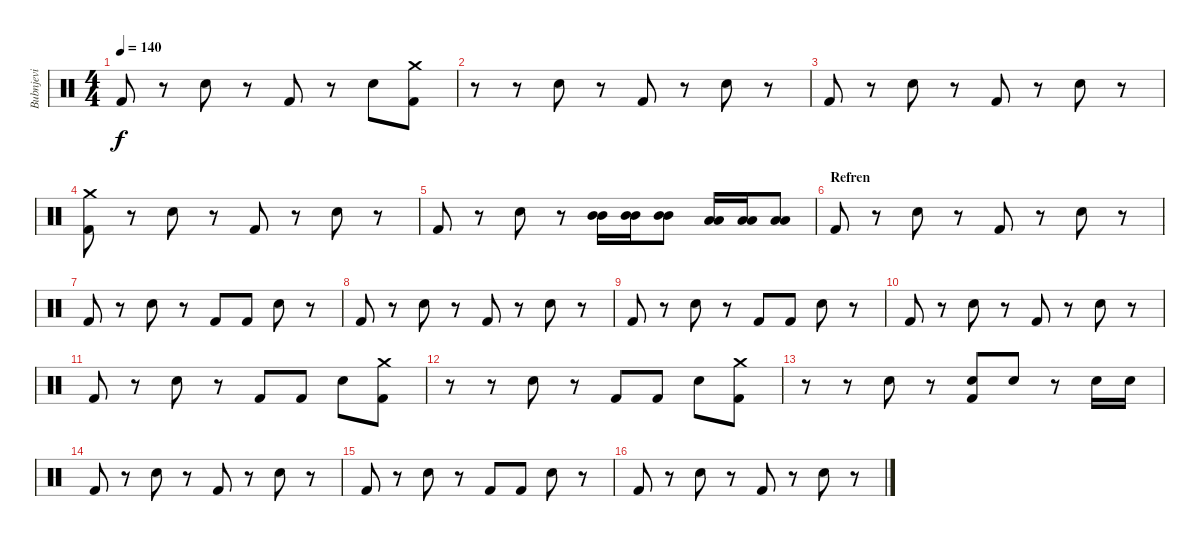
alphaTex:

\track ("Bubnjevi" "Bubnjevi") {instrument percussion}
\staff {score}
\articulation defaults
\ts (4 4)
\tempo 140
\clef neutral
\ks c "Kick (hit) 2".8{dy f}
r.8 "Snare (hit) 2".8 r.8 "Kick (hit) 2".8 r.8 "Snare (hit) 2".8 ("Crash medium (hit)" "Kick (hit) 2").8 |
r.8 r.8 "Snare (hit) 2".8 r.8 "Kick (hit) 2".8 r.8 "Snare (hit) 2".8 r.8 |
"Kick (hit) 2".8 r.8 "Snare (hit) 2".8 r.8 "Kick (hit) 2".8 r.8 "Snare (hit) 2".8 r.8 |
("Crash medium (hit)" "Kick (hit) 2").8 r.8 "Snare (hit) 2".8 r.8 "Kick (hit) 2".8 r.8 "Snare (hit) 2".8 r.8 |
"Kick (hit) 2".8 r.8 "Snare (hit) 2".8 r.8 ("Mid Tom (hit)" "Mid Tom (hit)").16 ("Mid Tom (hit)" "Mid Tom (hit)").16 ("Mid Tom (hit)" "Mid Tom (hit)").8 ("Low Tom (hit)" "Low Tom (hit)").16 ("Low Tom (hit)" "Low Tom (hit)").16 ("Low Tom (hit)" "Low Tom (hit)").8 |
\section ("" "Refren")
"Kick (hit) 2".8 r.8 "Snare (hit) 2".8 r.8 "Kick (hit) 2".8 r.8 "Snare (hit) 2".8 r.8 |
"Kick (hit) 2".8 r.8 "Snare (hit) 2".8 r.8 "Kick (hit) 2".8 "Kick (hit) 2".8 "Snare (hit) 2".8 r.8 |
"Kick (hit) 2".8 r.8 "Snare (hit) 2".8 r.8 "Kick (hit) 2".8 r.8 "Snare (hit) 2".8 r.8 |
"Kick (hit) 2".8 r.8 "Snare (hit) 2".8 r.8 "Kick (hit) 2".8 "Kick (hit) 2".8 "Snare (hit) 2".8 r.8 |
"Kick (hit) 2".8 r.8 "Snare (hit) 2".8 r.8 "Kick (hit) 2".8 r.8 "Snare (hit) 2".8 r.8 |
"Kick (hit) 2".8 r.8 "Snare (hit) 2".8 r.8 "Kick (hit) 2".8 "Kick (hit) 2".8 "Snare (hit) 2".8 ("Crash medium (hit)" "Kick (hit) 2").8 |
r.8 r.8 "Snare (hit) 2".8 r.8 "Kick (hit) 2".8 "Kick (hit) 2".8 "Snare (hit) 2".8 ("Crash medium (hit)" "Kick (hit) 2").8 |
r.8 r.8 "Snare (hit) 2".8 r.8 ("Snare (hit) 2" "Kick (hit) 2").8 "Snare (hit) 2".8 r.8 "Snare (hit) 2".16 "Snare (hit) 2".16 |
"Kick (hit) 2".8 r.8 "Snare (hit) 2".8 r.8 "Kick (hit) 2".8 r.8 "Snare (hit) 2".8 r.8 |
"Kick (hit) 2".8 r.8 "Snare (hit) 2".8 r.8 "Kick (hit) 2".8 "Kick (hit) 2".8 "Snare (hit) 2".8 r.8 |
"Kick (hit) 2".8 r.8 "Snare (hit) 2".8 r.8 "Kick (hit) 2".8 r.8 "Snare (hit) 2".8 r.8
